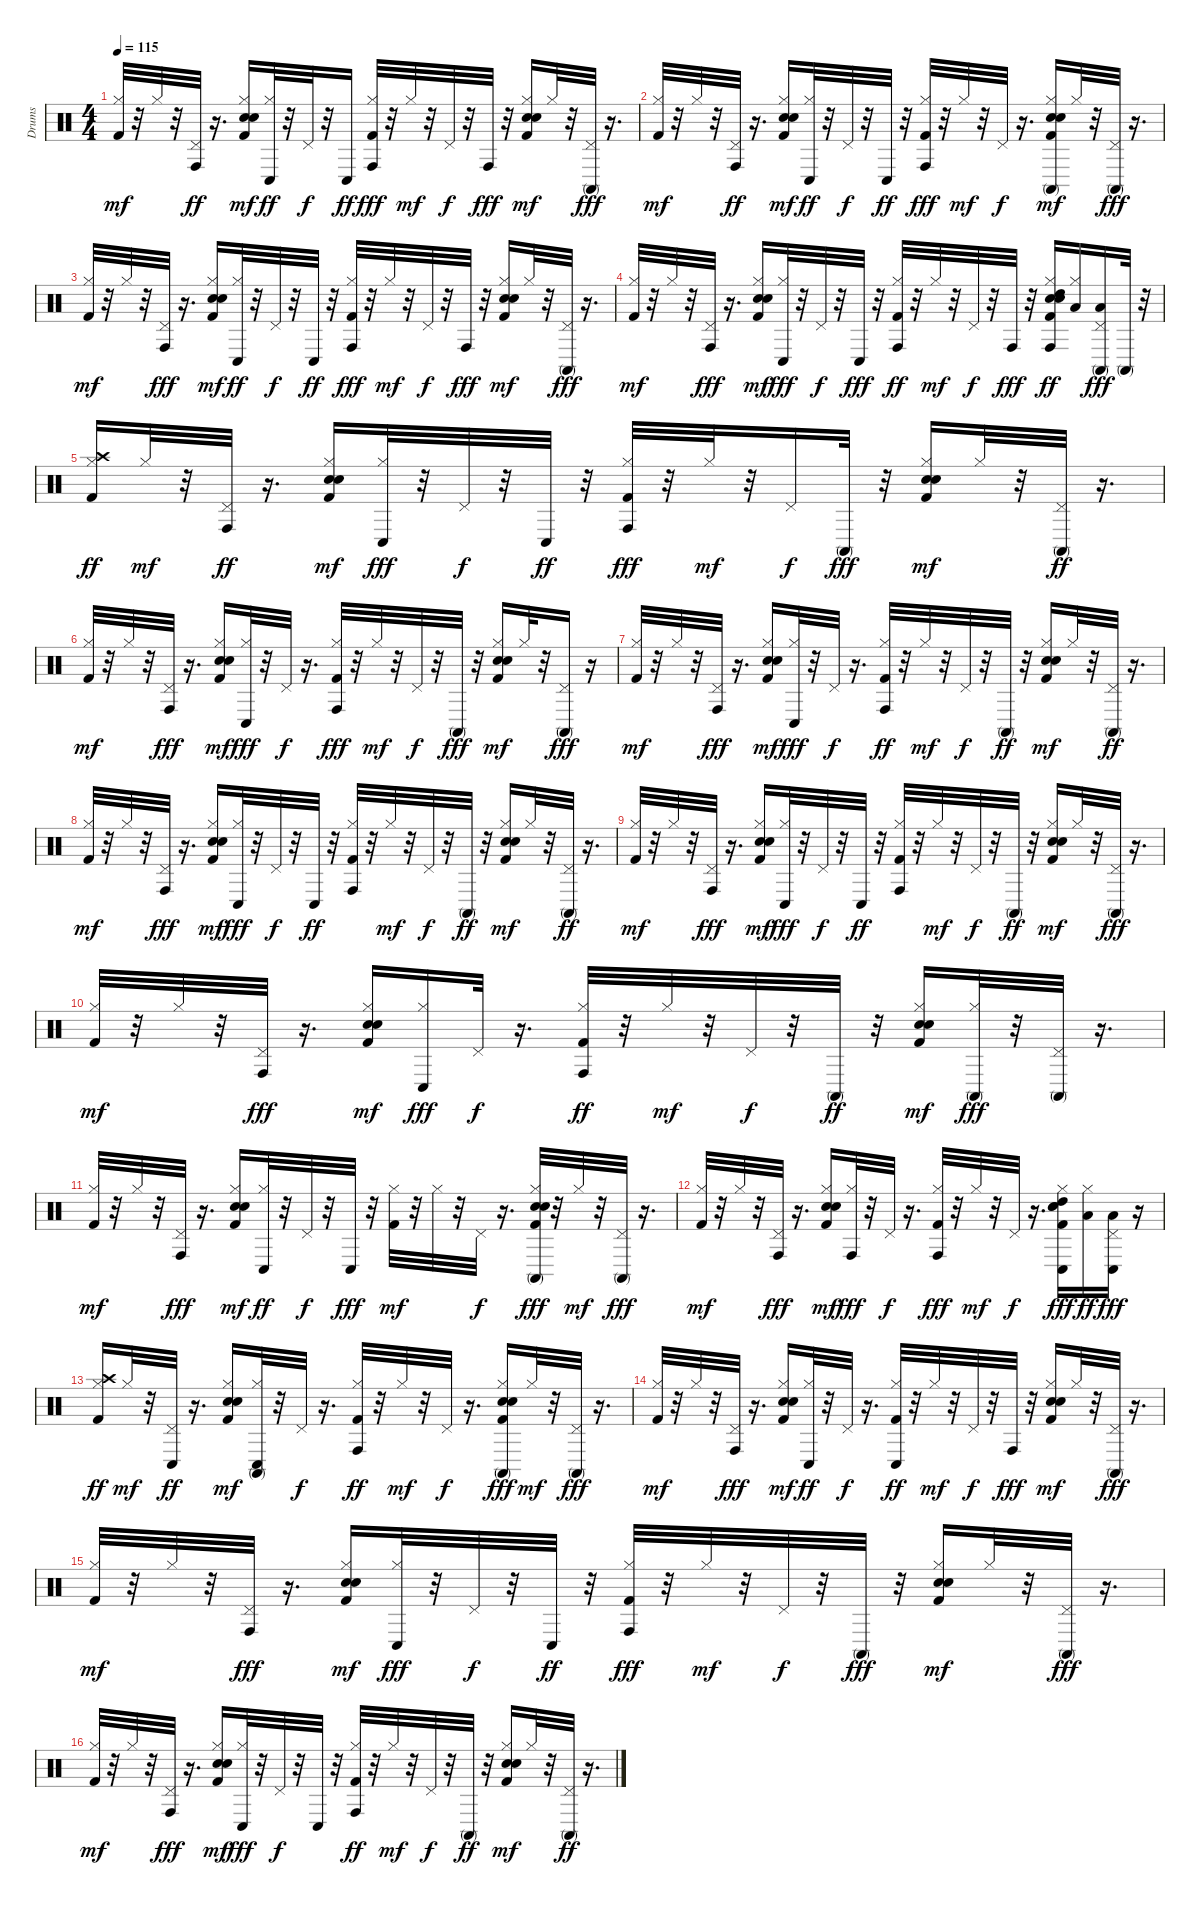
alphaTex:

\track ("Drums" "Drums") {instrument percussion}
\staff {score}
\articulation defaults
\ts (4 4)
\tempo 115
\clef neutral
\ks c
("Kick (hit) 2" "Hi-Hat (closed)").32{dy mf} r.32 "Hi-Hat (closed)".32 r.32 ("Pedal Hi-Hat (hit)" "Conga high (hit)").32{dy ff} r.16{d} ("Kick (hit) 2" "Snare (hit) 2" "Hand Clap (hit)" "Hi-Hat (closed)").16{dy mf} ("Hi-Hat (closed)" "Conga low (hit)").32{dy ff} r.32 "Pedal Hi-Hat (hit)".32{dy f} r.32 "Conga low (hit)".16{dy ff} ("Kick (hit) 2" "Hi-Hat (closed)" "Conga high (hit)").32{dy fff} r.32 "Hi-Hat (closed)".32{dy mf} r.32 "Pedal Hi-Hat (hit)".32{dy f} r.32 "Conga high (hit)".32{dy fff} r.32 ("Kick (hit) 2" "Snare (hit) 2" "Hand Clap (hit)" "Hi-Hat (closed)").16{dy mf} "Hi-Hat (closed)".32 r.32 ("Pedal Hi-Hat (hit)" "Conga high (mute)").32{dy fff} r.16{d} |
("Kick (hit) 2" "Hi-Hat (closed)").32{dy mf} r.32 "Hi-Hat (closed)".32 r.32 ("Pedal Hi-Hat (hit)" "Conga high (hit)").32{dy ff} r.16{d} ("Kick (hit) 2" "Snare (hit) 2" "Hand Clap (hit)" "Hi-Hat (closed)").16{dy mf} ("Hi-Hat (closed)" "Conga low (hit)").32{dy ff} r.32 "Pedal Hi-Hat (hit)".32{dy f} r.32 "Conga low (hit)".32{dy ff} r.32 ("Kick (hit) 2" "Hi-Hat (closed)" "Conga high (hit)").32{dy fff} r.32 "Hi-Hat (closed)".32{dy mf} r.32 "Pedal Hi-Hat (hit)".32{dy f} r.16{d} ("Kick (hit) 2" "Snare (hit) 2" "Hand Clap (hit)" "Hi-Hat (closed)" "Conga high (mute)").16{dy mf} "Hi-Hat (closed)".32 r.32 ("Pedal Hi-Hat (hit)" "Conga high (mute)").32{dy fff} r.16{d} |
("Kick (hit) 2" "Hi-Hat (closed)").32{dy mf} r.32 "Hi-Hat (closed)".32 r.32 ("Pedal Hi-Hat (hit)" "Conga high (hit)").32{dy fff} r.16{d} ("Kick (hit) 2" "Snare (hit) 2" "Hand Clap (hit)" "Hi-Hat (closed)").16{dy mf} ("Hi-Hat (closed)" "Conga low (hit)").32{dy ff} r.32 "Pedal Hi-Hat (hit)".32{dy f} r.32 "Conga low (hit)".32{dy ff} r.32 ("Kick (hit) 2" "Hi-Hat (closed)" "Conga high (hit)").32{dy fff} r.32 "Hi-Hat (closed)".32{dy mf} r.32 "Pedal Hi-Hat (hit)".32{dy f} r.32 "Conga high (hit)".32{dy fff} r.32 ("Kick (hit) 2" "Snare (hit) 2" "Hand Clap (hit)" "Hi-Hat (closed)").16{dy mf} "Hi-Hat (closed)".32 r.32 ("Pedal Hi-Hat (hit)" "Conga high (mute)").32{dy fff} r.16{d} |
("Kick (hit) 2" "Hi-Hat (closed)").32{dy mf} r.32 "Hi-Hat (closed)".32 r.32 ("Pedal Hi-Hat (hit)" "Conga high (hit)").32{dy fff} r.16{d} ("Kick (hit) 2" "Snare (hit) 2" "Hand Clap (hit)" "Hi-Hat (closed)").16{dy mf} ("Hi-Hat (closed)" "Conga low (hit)").32{dy fff} r.32 "Pedal Hi-Hat (hit)".32{dy f} r.32 "Conga low (hit)".32{dy fff} r.32 ("Kick (hit) 2" "Hi-Hat (closed)" "Conga high (hit)").32{dy ff} r.32 "Hi-Hat (closed)".32{dy mf} r.32 "Pedal Hi-Hat (hit)".32{dy f} r.32 "Conga high (hit)".32{dy fff} r.32 ("Kick (hit) 2" "Snare (hit) 2" "Hand Clap (hit)" "Hi-Hat (closed)" "High Tom (hit)" "Conga high (hit)").16{dy ff} ("Hi-Hat (closed)" "Low Tom (hit)").16 ("Pedal Hi-Hat (hit)" "Low Floor Tom (hit)" "Conga high (mute)").16{dy fff} "Conga high (mute)".32 r.32 |
("Kick (hit) 2" "Hi-Hat (closed)" "Crash high (hit)").16{dy ff} "Hi-Hat (closed)".32{dy mf} r.32 ("Pedal Hi-Hat (hit)" "Conga high (hit)").32{dy ff} r.16{d} ("Kick (hit) 2" "Snare (hit) 2" "Hand Clap (hit)" "Hi-Hat (closed)").16{dy mf} ("Hi-Hat (closed)" "Conga low (hit)").32{dy fff} r.32 "Pedal Hi-Hat (hit)".32{dy f} r.32 "Conga low (hit)".32{dy ff} r.32 ("Kick (hit) 2" "Hi-Hat (closed)" "Conga high (hit)").32{dy fff} r.32 "Hi-Hat (closed)".32{dy mf} r.32 "Pedal Hi-Hat (hit)".16{dy f} "Conga high (mute)".32{dy fff} r.32 ("Kick (hit) 2" "Snare (hit) 2" "Hand Clap (hit)" "Hi-Hat (closed)").16{dy mf} "Hi-Hat (closed)".32 r.32 ("Pedal Hi-Hat (hit)" "Conga high (mute)").32{dy ff} r.16{d} |
("Kick (hit) 2" "Hi-Hat (closed)").32{dy mf} r.32 "Hi-Hat (closed)".32 r.32 ("Pedal Hi-Hat (hit)" "Conga high (hit)").32{dy fff} r.16{d} ("Kick (hit) 2" "Snare (hit) 2" "Hand Clap (hit)" "Hi-Hat (closed)").16{dy mf} ("Hi-Hat (closed)" "Conga low (hit)").32{dy fff} r.32 "Pedal Hi-Hat (hit)".32{dy f} r.16{d} ("Kick (hit) 2" "Hi-Hat (closed)" "Conga high (hit)").32{dy fff} r.32 "Hi-Hat (closed)".32{dy mf} r.32 "Pedal Hi-Hat (hit)".32{dy f} r.32 "Conga high (mute)".32{dy fff} r.32 ("Kick (hit) 2" "Snare (hit) 2" "Hand Clap (hit)" "Hi-Hat (closed)").16{dy mf} "Hi-Hat (closed)".32 r.32 ("Pedal Hi-Hat (hit)" "Conga high (mute)").16{dy fff} r.16 |
("Kick (hit) 2" "Hi-Hat (closed)").32{dy mf} r.32 "Hi-Hat (closed)".32 r.32 ("Pedal Hi-Hat (hit)" "Conga high (hit)").32{dy fff} r.16{d} ("Kick (hit) 2" "Snare (hit) 2" "Hand Clap (hit)" "Hi-Hat (closed)").16{dy mf} ("Hi-Hat (closed)" "Conga low (hit)").32{dy fff} r.32 "Pedal Hi-Hat (hit)".32{dy f} r.16{d} ("Kick (hit) 2" "Hi-Hat (closed)" "Conga high (hit)").32{dy ff} r.32 "Hi-Hat (closed)".32{dy mf} r.32 "Pedal Hi-Hat (hit)".32{dy f} r.32 "Conga high (mute)".32{dy ff} r.32 ("Kick (hit) 2" "Snare (hit) 2" "Hand Clap (hit)" "Hi-Hat (closed)").16{dy mf} "Hi-Hat (closed)".32 r.32 ("Pedal Hi-Hat (hit)" "Conga high (mute)").32{dy ff} r.16{d} |
("Kick (hit) 2" "Hi-Hat (closed)").32{dy mf} r.32 "Hi-Hat (closed)".32 r.32 ("Pedal Hi-Hat (hit)" "Conga high (hit)").32{dy fff} r.16{d} ("Kick (hit) 2" "Snare (hit) 2" "Hand Clap (hit)" "Hi-Hat (closed)").16{dy mf} ("Hi-Hat (closed)" "Conga low (hit)").32{dy fff} r.32 "Pedal Hi-Hat (hit)".32{dy f} r.32 "Conga low (hit)".32{dy ff} r.32 ("Kick (hit) 2" "Hi-Hat (closed)" "Conga high (hit)").32 r.32 "Hi-Hat (closed)".32{dy mf} r.32 "Pedal Hi-Hat (hit)".32{dy f} r.32 "Conga high (mute)".32{dy ff} r.32 ("Kick (hit) 2" "Snare (hit) 2" "Hand Clap (hit)" "Hi-Hat (closed)").16{dy mf} "Hi-Hat (closed)".32 r.32 ("Pedal Hi-Hat (hit)" "Conga high (mute)").32{dy ff} r.16{d} |
("Kick (hit) 2" "Hi-Hat (closed)").32{dy mf} r.32 "Hi-Hat (closed)".32 r.32 ("Pedal Hi-Hat (hit)" "Conga high (hit)").32{dy fff} r.16{d} ("Kick (hit) 2" "Snare (hit) 2" "Hand Clap (hit)" "Hi-Hat (closed)").16{dy mf} ("Hi-Hat (closed)" "Conga low (hit)").32{dy fff} r.32 "Pedal Hi-Hat (hit)".32{dy f} r.32 "Conga low (hit)".32{dy ff} r.32 ("Kick (hit) 2" "Hi-Hat (closed)" "Conga high (hit)").32 r.32 "Hi-Hat (closed)".32{dy mf} r.32 "Pedal Hi-Hat (hit)".32{dy f} r.32 "Conga high (mute)".32{dy ff} r.32 ("Kick (hit) 2" "Snare (hit) 2" "Hand Clap (hit)" "Hi-Hat (closed)").16{dy mf} "Hi-Hat (closed)".32 r.32 ("Pedal Hi-Hat (hit)" "Conga high (mute)").32{dy fff} r.16{d} |
("Kick (hit) 2" "Hi-Hat (closed)").32{dy mf} r.32 "Hi-Hat (closed)".32 r.32 ("Pedal Hi-Hat (hit)" "Conga high (hit)").32{dy fff} r.16{d} ("Kick (hit) 2" "Snare (hit) 2" "Hand Clap (hit)" "Hi-Hat (closed)").16{dy mf} ("Hi-Hat (closed)" "Conga low (hit)").16{dy fff} "Pedal Hi-Hat (hit)".32{dy f} r.16{d} ("Kick (hit) 2" "Hi-Hat (closed)" "Conga high (hit)").32{dy ff} r.32 "Hi-Hat (closed)".32{dy mf} r.32 "Pedal Hi-Hat (hit)".32{dy f} r.32 "Conga high (mute)".32{dy ff} r.32 ("Kick (hit) 2" "Snare (hit) 2" "Hand Clap (hit)" "Hi-Hat (closed)").16{dy mf} ("Hi-Hat (closed)" "Conga high (mute)").32{dy fff} r.32 ("Pedal Hi-Hat (hit)" "Conga high (mute)").32 r.16{d} |
("Kick (hit) 2" "Hi-Hat (closed)").32{dy mf} r.32 "Hi-Hat (closed)".32 r.32 ("Pedal Hi-Hat (hit)" "Conga high (hit)").32{dy fff} r.16{d} ("Kick (hit) 2" "Snare (hit) 2" "Hand Clap (hit)" "Hi-Hat (closed)").16{dy mf} ("Hi-Hat (closed)" "Conga low (hit)").32{dy ff} r.32 "Pedal Hi-Hat (hit)".32{dy f} r.32 "Conga low (hit)".32{dy fff} r.32 ("Kick (hit) 2" "Hi-Hat (closed)").32{dy mf} r.32 "Hi-Hat (closed)".32 r.32 "Pedal Hi-Hat (hit)".32{dy f} r.16{d} ("Kick (hit) 2" "Snare (hit) 2" "Hand Clap (hit)" "Hi-Hat (closed)" "Conga high (mute)").32{dy fff} r.32 "Hi-Hat (closed)".32{dy mf} r.32 ("Pedal Hi-Hat (hit)" "Conga high (mute)").32{dy fff} r.16{d} |
("Kick (hit) 2" "Hi-Hat (closed)").32{dy mf} r.32 "Hi-Hat (closed)".32 r.32 ("Pedal Hi-Hat (hit)" "Conga high (hit)").32{dy fff} r.16{d} ("Kick (hit) 2" "Snare (hit) 2" "Hand Clap (hit)" "Hi-Hat (closed)").16{dy mf} ("Hi-Hat (closed)" "Conga high (hit)").32{dy fff} r.32 "Pedal Hi-Hat (hit)".32{dy f} r.16{d} ("Kick (hit) 2" "Hi-Hat (closed)" "Conga high (hit)").32{dy fff} r.32 "Hi-Hat (closed)".32{dy mf} r.32 "Pedal Hi-Hat (hit)".32{dy f} r.16{d} ("Kick (hit) 2" "Snare (hit) 2" "Hand Clap (hit)" "Hi-Hat (closed)" "High Tom (hit)" "Conga low (hit)").16{dy fff} ("Hi-Hat (closed)" "Low Tom (hit)").16{dy ff} ("Pedal Hi-Hat (hit)" "Low Floor Tom (hit)" "Conga low (hit)").16{dy fff} r.16 |
("Kick (hit) 2" "Hi-Hat (closed)" "Crash high (hit)").16{dy ff} "Hi-Hat (closed)".32{dy mf} r.32 ("Pedal Hi-Hat (hit)" "Conga low (hit)").32{dy ff} r.16{d} ("Kick (hit) 2" "Snare (hit) 2" "Hand Clap (hit)" "Hi-Hat (closed)").16{dy mf} ("Hi-Hat (closed)" "Conga high (mute)" "Conga low (hit)").32 r.32 "Pedal Hi-Hat (hit)".32{dy f} r.16{d} ("Kick (hit) 2" "Hi-Hat (closed)" "Conga high (hit)").32{dy ff} r.32 "Hi-Hat (closed)".32{dy mf} r.32 "Pedal Hi-Hat (hit)".32{dy f} r.16{d} ("Kick (hit) 2" "Snare (hit) 2" "Hand Clap (hit)" "Hi-Hat (closed)" "Conga high (mute)").16{dy fff} "Hi-Hat (closed)".32{dy mf} r.32 ("Pedal Hi-Hat (hit)" "Conga high (mute)").32{dy fff} r.16{d} |
("Kick (hit) 2" "Hi-Hat (closed)").32{dy mf} r.32 "Hi-Hat (closed)".32 r.32 ("Pedal Hi-Hat (hit)" "Conga high (hit)").32{dy fff} r.16{d} ("Kick (hit) 2" "Snare (hit) 2" "Hand Clap (hit)" "Hi-Hat (closed)").16{dy mf} ("Hi-Hat (closed)" "Conga low (hit)").32{dy ff} r.32 "Pedal Hi-Hat (hit)".32{dy f} r.16{d} ("Kick (hit) 2" "Hi-Hat (closed)" "Conga low (hit)").32{dy ff} r.32 "Hi-Hat (closed)".32{dy mf} r.32 "Pedal Hi-Hat (hit)".32{dy f} r.32 "Conga high (hit)".32{dy fff} r.32 ("Kick (hit) 2" "Snare (hit) 2" "Hand Clap (hit)" "Hi-Hat (closed)").16{dy mf} "Hi-Hat (closed)".32 r.32 ("Pedal Hi-Hat (hit)" "Conga high (mute)").32{dy fff} r.16{d} |
("Kick (hit) 2" "Hi-Hat (closed)").32{dy mf} r.32 "Hi-Hat (closed)".32 r.32 ("Pedal Hi-Hat (hit)" "Conga high (hit)").32{dy fff} r.16{d} ("Kick (hit) 2" "Snare (hit) 2" "Hand Clap (hit)" "Hi-Hat (closed)").16{dy mf} ("Hi-Hat (closed)" "Conga low (hit)").32{dy fff} r.32 "Pedal Hi-Hat (hit)".32{dy f} r.32 "Conga low (hit)".32{dy ff} r.32 ("Kick (hit) 2" "Hi-Hat (closed)" "Conga high (hit)").32{dy fff} r.32 "Hi-Hat (closed)".32{dy mf} r.32 "Pedal Hi-Hat (hit)".32{dy f} r.32 "Conga high (mute)".32{dy fff} r.32 ("Kick (hit) 2" "Snare (hit) 2" "Hand Clap (hit)" "Hi-Hat (closed)").16{dy mf} "Hi-Hat (closed)".32 r.32 ("Pedal Hi-Hat (hit)" "Conga high (mute)").32{dy fff} r.16{d} |
("Kick (hit) 2" "Hi-Hat (closed)").32{dy mf} r.32 "Hi-Hat (closed)".32 r.32 ("Pedal Hi-Hat (hit)" "Conga high (hit)").32{dy fff} r.16{d} ("Kick (hit) 2" "Snare (hit) 2" "Hand Clap (hit)" "Hi-Hat (closed)").16{dy mf} ("Hi-Hat (closed)" "Conga low (hit)").32{dy fff} r.32 "Pedal Hi-Hat (hit)".32{dy f} r.32 "Conga low (hit)".32 r.32 ("Kick (hit) 2" "Hi-Hat (closed)" "Conga high (hit)").32{dy ff} r.32 "Hi-Hat (closed)".32{dy mf} r.32 "Pedal Hi-Hat (hit)".32{dy f} r.32 "Conga high (mute)".32{dy ff} r.32 ("Kick (hit) 2" "Snare (hit) 2" "Hand Clap (hit)" "Hi-Hat (closed)").16{dy mf} "Hi-Hat (closed)".32 r.32 ("Pedal Hi-Hat (hit)" "Conga high (mute)").32{dy ff} r.16{d}
